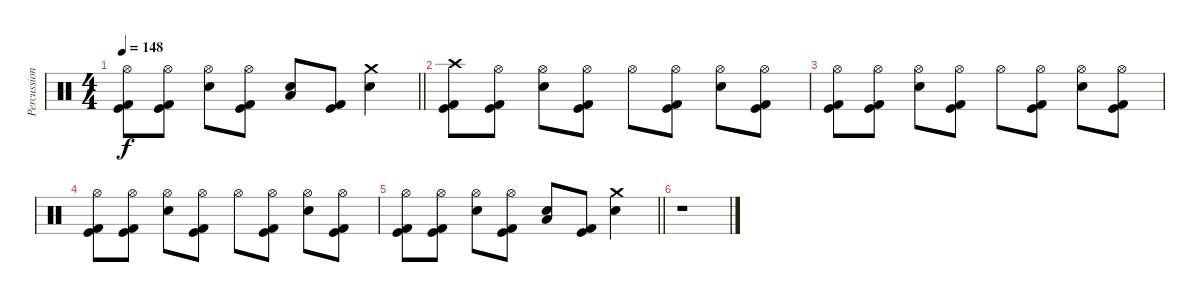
\track ("Percussion" "Percussion") {instrument percussion}
\staff {score}
\articulation defaults
\ts (4 4)
\tempo 148
\clef neutral
\barLineRight lightlight
\ks c
("Hi-Hat (open)" "Kick (hit)" "Kick (hit) 2").8{dy f} ("Hi-Hat (open)" "Kick (hit)" "Kick (hit) 2").8 ("Hi-Hat (open)" "Electric Snare (hit)").8 ("Hi-Hat (open)" "Kick (hit)" "Kick (hit) 2").8 ("Low Tom (hit)" "Electric Snare (hit)").8 ("Kick (hit)" "Kick (hit) 2").8 ("Crash medium (hit)" "Electric Snare (hit)").4 |
("Crash high (hit)" "Kick (hit)" "Kick (hit) 2").8 ("Hi-Hat (open)" "Kick (hit)" "Kick (hit) 2").8 ("Hi-Hat (open)" "Electric Snare (hit)").8 ("Hi-Hat (open)" "Kick (hit)" "Kick (hit) 2").8 "Hi-Hat (open)".8 ("Hi-Hat (open)" "Kick (hit)" "Kick (hit) 2").8 ("Hi-Hat (open)" "Electric Snare (hit)").8 ("Hi-Hat (open)" "Kick (hit)" "Kick (hit) 2").8 |
("Hi-Hat (open)" "Kick (hit)" "Kick (hit) 2").8 ("Hi-Hat (open)" "Kick (hit)" "Kick (hit) 2").8 ("Hi-Hat (open)" "Electric Snare (hit)").8 ("Hi-Hat (open)" "Kick (hit)" "Kick (hit) 2").8 "Hi-Hat (open)".8 ("Hi-Hat (open)" "Kick (hit)" "Kick (hit) 2").8 ("Hi-Hat (open)" "Electric Snare (hit)").8 ("Hi-Hat (open)" "Kick (hit)" "Kick (hit) 2").8 |
("Hi-Hat (open)" "Kick (hit)" "Kick (hit) 2").8 ("Hi-Hat (open)" "Kick (hit)" "Kick (hit) 2").8 ("Hi-Hat (open)" "Electric Snare (hit)").8 ("Hi-Hat (open)" "Kick (hit)" "Kick (hit) 2").8 "Hi-Hat (open)".8 ("Hi-Hat (open)" "Kick (hit)" "Kick (hit) 2").8 ("Hi-Hat (open)" "Electric Snare (hit)").8 ("Hi-Hat (open)" "Kick (hit)" "Kick (hit) 2").8 |
\barLineRight lightlight
("Hi-Hat (open)" "Kick (hit)" "Kick (hit) 2").8 ("Hi-Hat (open)" "Kick (hit)" "Kick (hit) 2").8 ("Hi-Hat (open)" "Electric Snare (hit)").8 ("Hi-Hat (open)" "Kick (hit)" "Kick (hit) 2").8 ("Low Tom (hit)" "Electric Snare (hit)").8 ("Kick (hit)" "Kick (hit) 2").8 ("Crash medium (hit)" "Electric Snare (hit)").4 |
r.1
